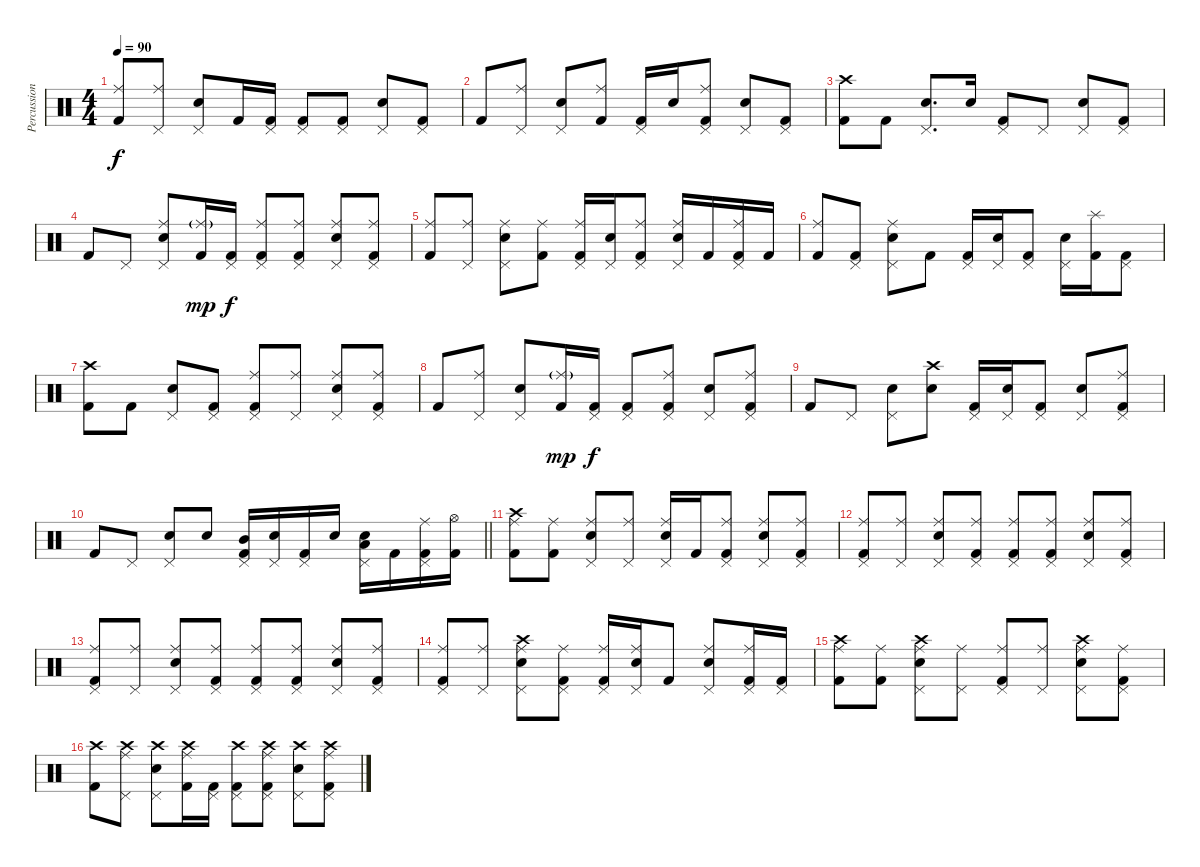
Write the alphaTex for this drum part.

\track ("Percussion" "Percussion") {instrument percussion}
\staff {score}
\articulation defaults
\ts (4 4)
\tempo 90
\clef neutral
\ks c
("Kick (hit) 2" "Ride (middle)").8{dy f} ("Pedal Hi-Hat (hit)" "Ride (middle)").8 ("Snare (hit) 2" "Pedal Hi-Hat (hit)").8 "Kick (hit) 2".16 ("Kick (hit) 2" "Pedal Hi-Hat (hit)").16 ("Kick (hit) 2" "Pedal Hi-Hat (hit)").8 ("Kick (hit) 2" "Pedal Hi-Hat (hit)").8 ("Snare (hit) 2" "Pedal Hi-Hat (hit)").8 ("Kick (hit) 2" "Pedal Hi-Hat (hit)").8 |
"Kick (hit) 2".8 ("Pedal Hi-Hat (hit)" "Ride (middle)").8 ("Snare (hit) 2" "Pedal Hi-Hat (hit)").8 ("Kick (hit) 2" "Ride (middle)").8 ("Kick (hit) 2" "Pedal Hi-Hat (hit)").16 "Snare (hit) 2".16 ("Kick (hit) 2" "Pedal Hi-Hat (hit)" "Ride (middle)").8 ("Snare (hit) 2" "Pedal Hi-Hat (hit)").8 ("Kick (hit) 2" "Pedal Hi-Hat (hit)").8 |
("Kick (hit) 2" "Crash high (hit)").8 "Kick (hit) 2".8 ("Snare (hit) 2" "Pedal Hi-Hat (hit)").8{d} "Snare (hit) 2".16 ("Kick (hit) 2" "Pedal Hi-Hat (hit)").8 "Pedal Hi-Hat (hit)".8 ("Snare (hit) 2" "Pedal Hi-Hat (hit)").8 ("Kick (hit) 2" "Pedal Hi-Hat (hit)").8 |
"Kick (hit) 2".8 "Pedal Hi-Hat (hit)".8 ("Snare (hit) 2" "Pedal Hi-Hat (hit)" "Ride (middle)").8 ("Kick (hit) 2" "Ride (middle)"{g}).16{dy mp} ("Kick (hit) 2" "Pedal Hi-Hat (hit)").16{dy f} ("Kick (hit) 2" "Pedal Hi-Hat (hit)" "Ride (middle)").8 ("Kick (hit) 2" "Pedal Hi-Hat (hit)" "Ride (middle)").8 ("Snare (hit) 2" "Pedal Hi-Hat (hit)" "Ride (middle)").8 ("Kick (hit) 2" "Pedal Hi-Hat (hit)" "Ride (middle)").8 |
("Kick (hit) 2" "Ride (middle)").8 ("Pedal Hi-Hat (hit)" "Ride (middle)").8 ("Snare (hit) 2" "Pedal Hi-Hat (hit)" "Ride (middle)").8 ("Kick (hit) 2" "Ride (middle)").8 ("Kick (hit) 2" "Pedal Hi-Hat (hit)" "Ride (middle)").16 ("Snare (hit) 2" "Pedal Hi-Hat (hit)").16 ("Kick (hit) 2" "Pedal Hi-Hat (hit)" "Ride (middle)").8 ("Snare (hit) 2" "Pedal Hi-Hat (hit)" "Ride (middle)").16 "Kick (hit) 2".16 ("Kick (hit) 2" "Pedal Hi-Hat (hit)" "Ride (middle)").16 "Kick (hit) 2".16 |
("Kick (hit) 2" "Ride (middle)").8 ("Kick (hit) 2" "Pedal Hi-Hat (hit)").8 ("Snare (hit) 2" "Pedal Hi-Hat (hit)" "Ride (middle)").8 "Kick (hit) 2".8 ("Kick (hit) 2" "Pedal Hi-Hat (hit)").16 ("Snare (hit) 2" "Pedal Hi-Hat (hit)").16 ("Kick (hit) 2" "Pedal Hi-Hat (hit)").8 ("Snare (hit) 2" "Pedal Hi-Hat (hit)").16 ("Kick (hit) 2" "Splash (hit)").16 ("Kick (hit) 2" "Pedal Hi-Hat (hit)").8 |
("Kick (hit) 2" "Crash high (hit)").8 "Kick (hit) 2".8 ("Snare (hit) 2" "Pedal Hi-Hat (hit)").8 ("Kick (hit) 2" "Pedal Hi-Hat (hit)").8 ("Kick (hit) 2" "Pedal Hi-Hat (hit)" "Ride (middle)").8 ("Pedal Hi-Hat (hit)" "Ride (middle)").8 ("Snare (hit) 2" "Pedal Hi-Hat (hit)" "Ride (middle)").8 ("Kick (hit) 2" "Pedal Hi-Hat (hit)" "Ride (middle)").8 |
"Kick (hit) 2".8 ("Pedal Hi-Hat (hit)" "Ride (middle)").8 ("Snare (hit) 2" "Pedal Hi-Hat (hit)").8 ("Kick (hit) 2" "Ride (middle)"{g}).16{dy mp} ("Kick (hit) 2" "Pedal Hi-Hat (hit)").16{dy f} ("Kick (hit) 2" "Pedal Hi-Hat (hit)").8 ("Kick (hit) 2" "Pedal Hi-Hat (hit)" "Ride (middle)").8 ("Snare (hit) 2" "Pedal Hi-Hat (hit)").8 ("Kick (hit) 2" "Pedal Hi-Hat (hit)" "Ride (middle)").8 |
"Kick (hit) 2".8 "Pedal Hi-Hat (hit)".8 ("Snare (hit) 2" "Pedal Hi-Hat (hit)").8 ("Snare (hit) 2" "Crash high (hit)").8 ("Kick (hit) 2" "Pedal Hi-Hat (hit)").16 ("Snare (hit) 2" "Pedal Hi-Hat (hit)").16 ("Kick (hit) 2" "Pedal Hi-Hat (hit)").8 ("Snare (hit) 2" "Pedal Hi-Hat (hit)").8 ("Kick (hit) 2" "Pedal Hi-Hat (hit)" "Ride (middle)").8 |
\barLineRight lightlight "Kick (hit) 2".8 "Pedal Hi-Hat (hit)".8
("Snare (hit) 2" "Pedal Hi-Hat (hit)").8 "Snare (hit) 2".8 ("Kick (hit) 2" "Pedal Hi-Hat (hit)" "Mid Tom (hit)").16 ("Snare (hit) 2" "Pedal Hi-Hat (hit)").16 ("Kick (hit) 2" "Pedal Hi-Hat (hit)").16 "Snare (hit) 2".16 ("Snare (hit) 2" "Pedal Hi-Hat (hit)" "Low Tom (hit)").16 "Kick (hit) 2".16 ("Kick (hit) 2" "Pedal Hi-Hat (hit)" "Ride (middle)").16 ("Kick (hit) 2" "Hi-Hat (open)").16 |
("Kick (hit) 2" "Crash high (hit)" "Ride (middle)").8 ("Kick (hit) 2" "Ride (middle)").8 ("Snare (hit) 2" "Pedal Hi-Hat (hit)" "Ride (middle)").8 ("Pedal Hi-Hat (hit)" "Ride (middle)").8 ("Snare (hit) 2" "Pedal Hi-Hat (hit)" "Ride (middle)").16 "Kick (hit) 2".16 ("Kick (hit) 2" "Pedal Hi-Hat (hit)" "Ride (middle)").8 ("Snare (hit) 2" "Pedal Hi-Hat (hit)" "Ride (middle)").8 ("Kick (hit) 2" "Pedal Hi-Hat (hit)" "Ride (middle)").8 |
("Kick (hit) 2" "Pedal Hi-Hat (hit)" "Ride (middle)").8 ("Pedal Hi-Hat (hit)" "Ride (middle)").8 ("Snare (hit) 2" "Pedal Hi-Hat (hit)" "Ride (middle)").8 ("Kick (hit) 2" "Pedal Hi-Hat (hit)" "Ride (middle)").8 ("Kick (hit) 2" "Pedal Hi-Hat (hit)" "Ride (middle)").8 ("Kick (hit) 2" "Pedal Hi-Hat (hit)" "Ride (middle)").8 ("Snare (hit) 2" "Pedal Hi-Hat (hit)" "Ride (middle)").8 ("Kick (hit) 2" "Pedal Hi-Hat (hit)" "Ride (middle)").8 |
("Kick (hit) 2" "Pedal Hi-Hat (hit)" "Ride (middle)").8 ("Pedal Hi-Hat (hit)" "Ride (middle)").8 ("Snare (hit) 2" "Pedal Hi-Hat (hit)" "Ride (middle)").8 ("Kick (hit) 2" "Pedal Hi-Hat (hit)" "Ride (middle)").8 ("Kick (hit) 2" "Pedal Hi-Hat (hit)" "Ride (middle)").8 ("Kick (hit) 2" "Pedal Hi-Hat (hit)" "Ride (middle)").8 ("Snare (hit) 2" "Pedal Hi-Hat (hit)" "Ride (middle)").8 ("Kick (hit) 2" "Pedal Hi-Hat (hit)" "Ride (middle)").8 |
("Kick (hit) 2" "Pedal Hi-Hat (hit)" "Ride (middle)").8 ("Pedal Hi-Hat (hit)" "Ride (middle)").8 ("Snare (hit) 2" "Pedal Hi-Hat (hit)" "Crash high (hit)" "Ride (middle)").8 ("Kick (hit) 2" "Pedal Hi-Hat (hit)" "Ride (middle)").8 ("Kick (hit) 2" "Pedal Hi-Hat (hit)" "Ride (middle)").16 ("Snare (hit) 2" "Pedal Hi-Hat (hit)" "Ride (middle)").16 "Kick (hit) 2".8 ("Snare (hit) 2" "Pedal Hi-Hat (hit)" "Ride (middle)").8 ("Kick (hit) 2" "Pedal Hi-Hat (hit)" "Ride (middle)").16 ("Kick (hit) 2" "Pedal Hi-Hat (hit)").16 |
("Kick (hit) 2" "Crash high (hit)" "Ride (middle)").8 ("Kick (hit) 2" "Ride (middle)").8 ("Snare (hit) 2" "Pedal Hi-Hat (hit)" "Crash high (hit)" "Ride (middle)").8 ("Pedal Hi-Hat (hit)" "Ride (middle)").8 ("Kick (hit) 2" "Pedal Hi-Hat (hit)" "Ride (middle)").8 ("Pedal Hi-Hat (hit)" "Ride (middle)").8 ("Snare (hit) 2" "Pedal Hi-Hat (hit)" "Crash high (hit)" "Ride (middle)").8 ("Kick (hit) 2" "Pedal Hi-Hat (hit)" "Ride (middle)").8 |
("Kick (hit) 2" "Crash high (hit)").8 ("Pedal Hi-Hat (hit)" "Crash high (hit)" "Ride (middle)").8 ("Snare (hit) 2" "Pedal Hi-Hat (hit)" "Crash high (hit)").8 ("Kick (hit) 2" "Crash high (hit)" "Ride (middle)").16 ("Kick (hit) 2" "Pedal Hi-Hat (hit)").16 ("Kick (hit) 2" "Pedal Hi-Hat (hit)" "Crash high (hit)").8 ("Kick (hit) 2" "Pedal Hi-Hat (hit)" "Crash high (hit)" "Ride (middle)").8 ("Snare (hit) 2" "Pedal Hi-Hat (hit)" "Crash high (hit)").8 ("Kick (hit) 2" "Pedal Hi-Hat (hit)" "Crash high (hit)" "Ride (middle)").8
